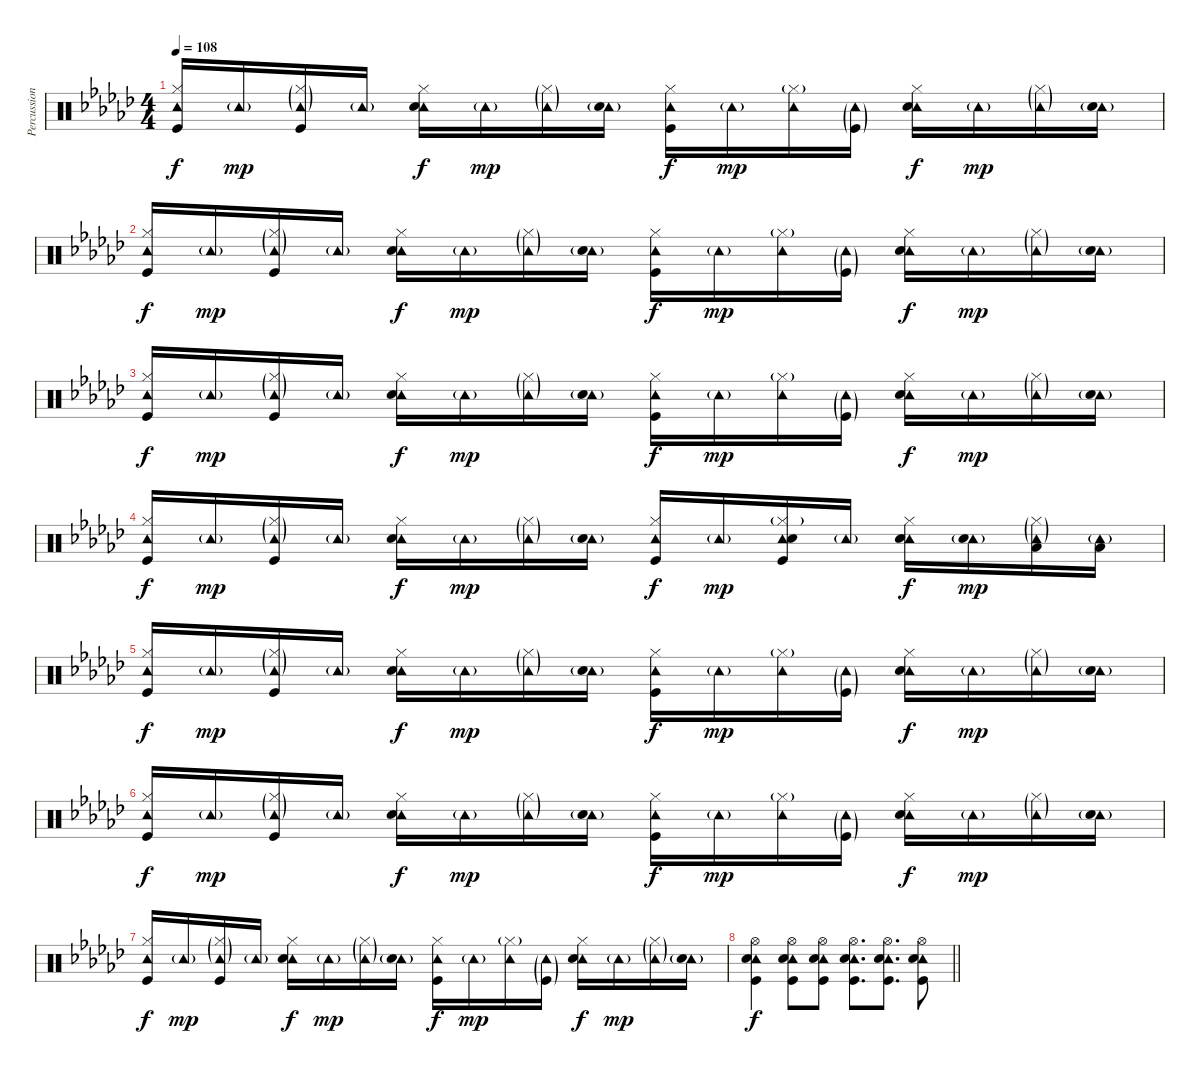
\track ("Percussion" "Percussion") {instrument percussion}
\staff {score}
\articulation defaults
\ts (4 4)
\tempo 108
\clef neutral
\ks gb
("Tambourine (hit)" "Hi-Hat (closed)" "Kick (hit)").16{dy f} "Tambourine (hit)"{g}.16{dy mp} ("Tambourine (hit)"{g} "Hi-Hat (closed)"{g} "Kick (hit)").16 "Tambourine (hit)"{g}.16 ("Tambourine (hit)" "Hi-Hat (closed)" "Snare (hit) 2").16{dy f} "Tambourine (hit)"{g}.16{dy mp} ("Tambourine (hit)"{g} "Hi-Hat (closed)"{g}).16 ("Tambourine (hit)"{g} "Snare (hit) 2"{g}).16 ("Tambourine (hit)" "Hi-Hat (closed)" "Kick (hit)").16{dy f} "Tambourine (hit)"{g}.16{dy mp} ("Tambourine (hit)" "Hi-Hat (closed)"{g}).16 ("Tambourine (hit)"{g} "Kick (hit)"{g}).16 ("Tambourine (hit)" "Hi-Hat (closed)" "Snare (hit) 2").16{dy f} "Tambourine (hit)"{g}.16{dy mp} ("Tambourine (hit)"{g} "Hi-Hat (closed)"{g}).16 ("Tambourine (hit)"{g} "Snare (hit) 2"{g}).16 |
("Tambourine (hit)" "Hi-Hat (closed)" "Kick (hit)").16{dy f} "Tambourine (hit)"{g}.16{dy mp} ("Tambourine (hit)"{g} "Hi-Hat (closed)"{g} "Kick (hit)").16 "Tambourine (hit)"{g}.16 ("Tambourine (hit)" "Hi-Hat (closed)" "Snare (hit) 2").16{dy f} "Tambourine (hit)"{g}.16{dy mp} ("Tambourine (hit)"{g} "Hi-Hat (closed)"{g}).16 ("Tambourine (hit)"{g} "Snare (hit) 2"{g}).16 ("Tambourine (hit)" "Hi-Hat (closed)" "Kick (hit)").16{dy f} "Tambourine (hit)"{g}.16{dy mp} ("Tambourine (hit)" "Hi-Hat (closed)"{g}).16 ("Tambourine (hit)"{g} "Kick (hit)"{g}).16 ("Tambourine (hit)" "Hi-Hat (closed)" "Snare (hit) 2").16{dy f} "Tambourine (hit)"{g}.16{dy mp} ("Tambourine (hit)"{g} "Hi-Hat (closed)"{g}).16 ("Tambourine (hit)"{g} "Snare (hit) 2"{g}).16 |
("Tambourine (hit)" "Hi-Hat (closed)" "Kick (hit)").16{dy f} "Tambourine (hit)"{g}.16{dy mp} ("Tambourine (hit)"{g} "Hi-Hat (closed)"{g} "Kick (hit)").16 "Tambourine (hit)"{g}.16 ("Tambourine (hit)" "Hi-Hat (closed)" "Snare (hit) 2").16{dy f} "Tambourine (hit)"{g}.16{dy mp} ("Tambourine (hit)"{g} "Hi-Hat (closed)"{g}).16 ("Tambourine (hit)"{g} "Snare (hit) 2"{g}).16 ("Tambourine (hit)" "Hi-Hat (closed)" "Kick (hit)").16{dy f} "Tambourine (hit)"{g}.16{dy mp} ("Tambourine (hit)" "Hi-Hat (closed)"{g}).16 ("Tambourine (hit)"{g} "Kick (hit)"{g}).16 ("Tambourine (hit)" "Hi-Hat (closed)" "Snare (hit) 2").16{dy f} "Tambourine (hit)"{g}.16{dy mp} ("Tambourine (hit)"{g} "Hi-Hat (closed)"{g}).16 ("Tambourine (hit)"{g} "Snare (hit) 2"{g}).16 |
("Tambourine (hit)" "Hi-Hat (closed)" "Kick (hit)").16{dy f} "Tambourine (hit)"{g}.16{dy mp} ("Tambourine (hit)"{g} "Hi-Hat (closed)"{g} "Kick (hit)").16 "Tambourine (hit)"{g}.16 ("Tambourine (hit)" "Hi-Hat (closed)" "Snare (hit) 2").16{dy f} "Tambourine (hit)"{g}.16{dy mp} ("Tambourine (hit)"{g} "Hi-Hat (closed)"{g}).16 ("Tambourine (hit)"{g} "Snare (hit) 2"{g}).16 ("Tambourine (hit)" "Hi-Hat (closed)" "Kick (hit)").16{dy f} "Tambourine (hit)"{g}.16{dy mp} ("Tambourine (hit)" "Hi-Hat (closed)"{g} "Snare (hit) 2" "Kick (hit)").16 "Tambourine (hit)"{g}.16 ("Tambourine (hit)" "Hi-Hat (closed)" "Snare (hit) 2").16{dy f} ("Tambourine (hit)"{g} "Snare (hit) 2").16{dy mp} ("Tambourine (hit)"{g} "Hi-Hat (closed)"{g} "Low Tom (hit)").16 ("Tambourine (hit)"{g} "Low Tom (hit)").16 |
("Tambourine (hit)" "Hi-Hat (closed)" "Kick (hit)").16{dy f} "Tambourine (hit)"{g}.16{dy mp} ("Tambourine (hit)"{g} "Hi-Hat (closed)"{g} "Kick (hit)").16 "Tambourine (hit)"{g}.16 ("Tambourine (hit)" "Hi-Hat (closed)" "Snare (hit) 2").16{dy f} "Tambourine (hit)"{g}.16{dy mp} ("Tambourine (hit)"{g} "Hi-Hat (closed)"{g}).16 ("Tambourine (hit)"{g} "Snare (hit) 2"{g}).16 ("Tambourine (hit)" "Hi-Hat (closed)" "Kick (hit)").16{dy f} "Tambourine (hit)"{g}.16{dy mp} ("Tambourine (hit)" "Hi-Hat (closed)"{g}).16 ("Tambourine (hit)"{g} "Kick (hit)"{g}).16 ("Tambourine (hit)" "Hi-Hat (closed)" "Snare (hit) 2").16{dy f} "Tambourine (hit)"{g}.16{dy mp} ("Tambourine (hit)"{g} "Hi-Hat (closed)"{g}).16 ("Tambourine (hit)"{g} "Snare (hit) 2"{g}).16 |
("Tambourine (hit)" "Hi-Hat (closed)" "Kick (hit)").16{dy f} "Tambourine (hit)"{g}.16{dy mp} ("Tambourine (hit)"{g} "Hi-Hat (closed)"{g} "Kick (hit)").16 "Tambourine (hit)"{g}.16 ("Tambourine (hit)" "Hi-Hat (closed)" "Snare (hit) 2").16{dy f} "Tambourine (hit)"{g}.16{dy mp} ("Tambourine (hit)"{g} "Hi-Hat (closed)"{g}).16 ("Tambourine (hit)"{g} "Snare (hit) 2"{g}).16 ("Tambourine (hit)" "Hi-Hat (closed)" "Kick (hit)").16{dy f} "Tambourine (hit)"{g}.16{dy mp} ("Tambourine (hit)" "Hi-Hat (closed)"{g}).16 ("Tambourine (hit)"{g} "Kick (hit)"{g}).16 ("Tambourine (hit)" "Hi-Hat (closed)" "Snare (hit) 2").16{dy f} "Tambourine (hit)"{g}.16{dy mp} ("Tambourine (hit)"{g} "Hi-Hat (closed)"{g}).16 ("Tambourine (hit)"{g} "Snare (hit) 2"{g}).16 |
("Tambourine (hit)" "Hi-Hat (closed)" "Kick (hit)").16{dy f} "Tambourine (hit)"{g}.16{dy mp} ("Tambourine (hit)"{g} "Hi-Hat (closed)"{g} "Kick (hit)").16 "Tambourine (hit)"{g}.16 ("Tambourine (hit)" "Hi-Hat (closed)" "Snare (hit) 2").16{dy f} "Tambourine (hit)"{g}.16{dy mp} ("Tambourine (hit)"{g} "Hi-Hat (closed)"{g}).16 ("Tambourine (hit)"{g} "Snare (hit) 2"{g}).16 ("Tambourine (hit)" "Hi-Hat (closed)" "Kick (hit)").16{dy f} "Tambourine (hit)"{g}.16{dy mp} ("Tambourine (hit)" "Hi-Hat (closed)"{g}).16 ("Tambourine (hit)"{g} "Kick (hit)"{g}).16 ("Tambourine (hit)" "Hi-Hat (closed)" "Snare (hit) 2").16{dy f} "Tambourine (hit)"{g}.16{dy mp} ("Tambourine (hit)"{g} "Hi-Hat (closed)"{g}).16 ("Tambourine (hit)"{g} "Snare (hit) 2"{g}).16 |
\barLineRight lightlight
("Tambourine (hit)" "Hi-Hat (open)" "Snare (hit) 2" "Kick (hit)").4{dy f} ("Tambourine (hit)" "Hi-Hat (open)" "Snare (hit) 2" "Kick (hit)").8 ("Tambourine (hit)" "Hi-Hat (open)" "Snare (hit) 2" "Kick (hit)").8 ("Tambourine (hit)" "Hi-Hat (open)" "Snare (hit) 2" "Kick (hit)").8{d} ("Tambourine (hit)" "Hi-Hat (open)" "Snare (hit) 2" "Kick (hit)").8{d} ("Tambourine (hit)" "Hi-Hat (open)" "Snare (hit) 2" "Kick (hit)").8
